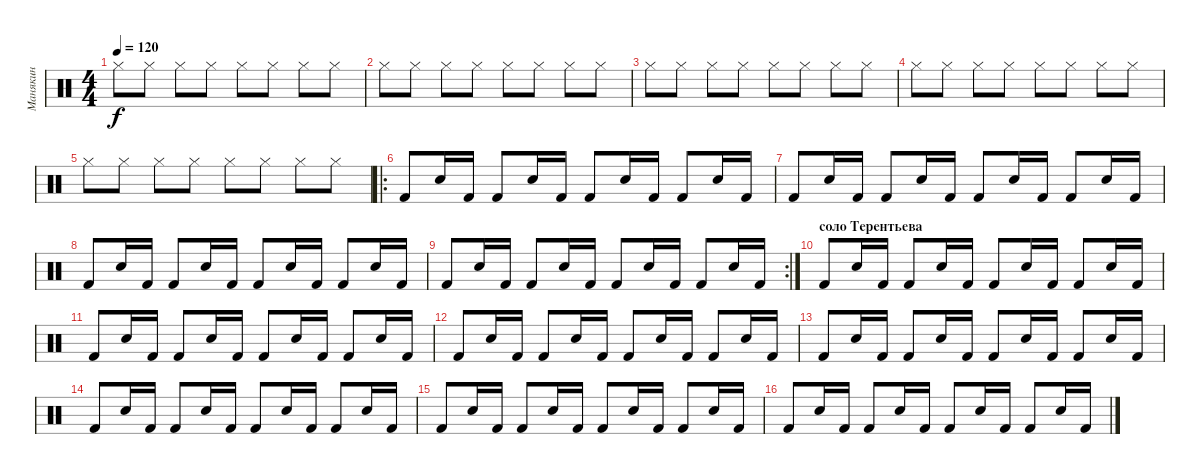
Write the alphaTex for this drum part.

\track ("Манякин" "Манякин") {instrument percussion}
\staff {score}
\articulation defaults
\ts (4 4)
\tempo 120
\clef neutral
\ks c "Hi-Hat (closed)".8{dy f} "Hi-Hat (closed)".8 "Hi-Hat (closed)".8 "Hi-Hat (closed)".8 "Hi-Hat (closed)".8 "Hi-Hat (closed)".8 "Hi-Hat (closed)".8 "Hi-Hat (closed)".8
|
"Hi-Hat (closed)".8 "Hi-Hat (closed)".8 "Hi-Hat (closed)".8 "Hi-Hat (closed)".8 "Hi-Hat (closed)".8 "Hi-Hat (closed)".8 "Hi-Hat (closed)".8 "Hi-Hat (closed)".8 |
"Hi-Hat (closed)".8 "Hi-Hat (closed)".8 "Hi-Hat (closed)".8 "Hi-Hat (closed)".8 "Hi-Hat (closed)".8 "Hi-Hat (closed)".8 "Hi-Hat (closed)".8 "Hi-Hat (closed)".8 |
"Hi-Hat (closed)".8 "Hi-Hat (closed)".8 "Hi-Hat (closed)".8 "Hi-Hat (closed)".8 "Hi-Hat (closed)".8 "Hi-Hat (closed)".8 "Hi-Hat (closed)".8 "Hi-Hat (closed)".8 |
"Hi-Hat (closed)".8 "Hi-Hat (closed)".8 "Hi-Hat (closed)".8 "Hi-Hat (closed)".8 "Hi-Hat (closed)".8 "Hi-Hat (closed)".8 "Hi-Hat (closed)".8 "Hi-Hat (closed)".8 |
\ro "Kick (hit) 2".8 "Snare (hit) 2".16 "Kick (hit) 2".16 "Kick (hit) 2".8 "Snare (hit) 2".16 "Kick (hit) 2".16 "Kick (hit) 2".8 "Snare (hit) 2".16 "Kick (hit) 2".16 "Kick (hit) 2".8 "Snare (hit) 2".16 "Kick (hit) 2".16
|
"Kick (hit) 2".8 "Snare (hit) 2".16 "Kick (hit) 2".16 "Kick (hit) 2".8 "Snare (hit) 2".16 "Kick (hit) 2".16 "Kick (hit) 2".8 "Snare (hit) 2".16 "Kick (hit) 2".16 "Kick (hit) 2".8 "Snare (hit) 2".16 "Kick (hit) 2".16 |
"Kick (hit) 2".8 "Snare (hit) 2".16 "Kick (hit) 2".16 "Kick (hit) 2".8 "Snare (hit) 2".16 "Kick (hit) 2".16 "Kick (hit) 2".8 "Snare (hit) 2".16 "Kick (hit) 2".16 "Kick (hit) 2".8 "Snare (hit) 2".16 "Kick (hit) 2".16 |
\rc 2 "Kick (hit) 2".8 "Snare (hit) 2".16 "Kick (hit) 2".16 "Kick (hit) 2".8 "Snare (hit) 2".16 "Kick (hit) 2".16 "Kick (hit) 2".8 "Snare (hit) 2".16 "Kick (hit) 2".16 "Kick (hit) 2".8 "Snare (hit) 2".16 "Kick (hit) 2".16
|
\section ("" "соло Терентьева")
"Kick (hit) 2".8 "Snare (hit) 2".16 "Kick (hit) 2".16 "Kick (hit) 2".8 "Snare (hit) 2".16 "Kick (hit) 2".16 "Kick (hit) 2".8 "Snare (hit) 2".16 "Kick (hit) 2".16 "Kick (hit) 2".8 "Snare (hit) 2".16 "Kick (hit) 2".16 |
"Kick (hit) 2".8 "Snare (hit) 2".16 "Kick (hit) 2".16 "Kick (hit) 2".8 "Snare (hit) 2".16 "Kick (hit) 2".16 "Kick (hit) 2".8 "Snare (hit) 2".16 "Kick (hit) 2".16 "Kick (hit) 2".8 "Snare (hit) 2".16 "Kick (hit) 2".16 |
"Kick (hit) 2".8 "Snare (hit) 2".16 "Kick (hit) 2".16 "Kick (hit) 2".8 "Snare (hit) 2".16 "Kick (hit) 2".16 "Kick (hit) 2".8 "Snare (hit) 2".16 "Kick (hit) 2".16 "Kick (hit) 2".8 "Snare (hit) 2".16 "Kick (hit) 2".16 |
"Kick (hit) 2".8 "Snare (hit) 2".16 "Kick (hit) 2".16 "Kick (hit) 2".8 "Snare (hit) 2".16 "Kick (hit) 2".16 "Kick (hit) 2".8 "Snare (hit) 2".16 "Kick (hit) 2".16 "Kick (hit) 2".8 "Snare (hit) 2".16 "Kick (hit) 2".16 |
"Kick (hit) 2".8 "Snare (hit) 2".16 "Kick (hit) 2".16 "Kick (hit) 2".8 "Snare (hit) 2".16 "Kick (hit) 2".16 "Kick (hit) 2".8 "Snare (hit) 2".16 "Kick (hit) 2".16 "Kick (hit) 2".8 "Snare (hit) 2".16 "Kick (hit) 2".16 |
"Kick (hit) 2".8 "Snare (hit) 2".16 "Kick (hit) 2".16 "Kick (hit) 2".8 "Snare (hit) 2".16 "Kick (hit) 2".16 "Kick (hit) 2".8 "Snare (hit) 2".16 "Kick (hit) 2".16 "Kick (hit) 2".8 "Snare (hit) 2".16 "Kick (hit) 2".16 |
"Kick (hit) 2".8 "Snare (hit) 2".16 "Kick (hit) 2".16 "Kick (hit) 2".8 "Snare (hit) 2".16 "Kick (hit) 2".16 "Kick (hit) 2".8 "Snare (hit) 2".16 "Kick (hit) 2".16 "Kick (hit) 2".8 "Snare (hit) 2".16 "Kick (hit) 2".16
